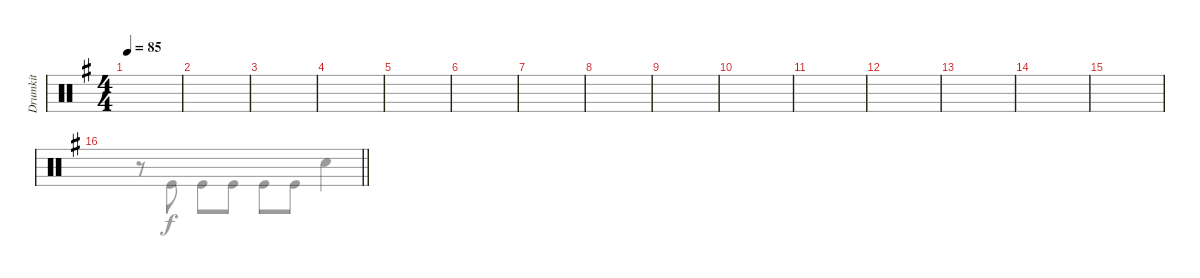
\track ("Drumkit" "Drumkit") {instrument percussion}
\staff {score}
\articulation defaults
\voice
\ts (4 4)
\tempo 85
\clef neutral
\ks eminor
|
|
|
|
|
|
|
|
|
|
|
|
|
|
|
\barLineRight lightlight
\voice
\clef neutral
\ks eminor
|
|
|
|
|
|
|
|
|
|
|
|
|
|
|
\barLineRight lightlight
r.8 "Kick (hit)".8 "Kick (hit)".8 "Kick (hit)".8 "Kick (hit)".8 "Kick (hit)".8 "Snare (hit) 2".4
